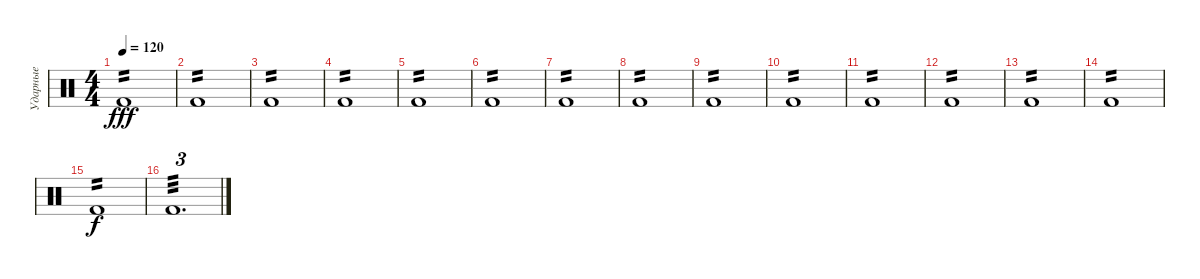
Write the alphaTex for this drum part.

\track ("Ударные" "Ударные") {instrument percussion}
\staff {score}
\articulation defaults
\ts (4 4)
\tempo 120
\clef neutral
\ks c "Kick (hit) 2".1{tp 2 dy fff}
|
"Kick (hit) 2".1{tp 2} |
"Kick (hit) 2".1{tp 2} |
"Kick (hit) 2".1{tp 2} |
"Kick (hit) 2".1{tp 2} |
"Kick (hit) 2".1{tp 2} |
"Kick (hit) 2".1{tp 2} |
"Kick (hit) 2".1{tp 2} |
"Kick (hit) 2".1{tp 2} |
"Kick (hit) 2".1{tp 2} |
"Kick (hit) 2".1{tp 2} |
"Kick (hit) 2".1{tp 2} |
"Kick (hit) 2".1{tp 2} |
"Kick (hit) 2".1{tp 2} |
"Kick (hit) 2".1{tp 2 dy f} |
"Kick (hit) 2".1{d tu (3 2) tp 3}
